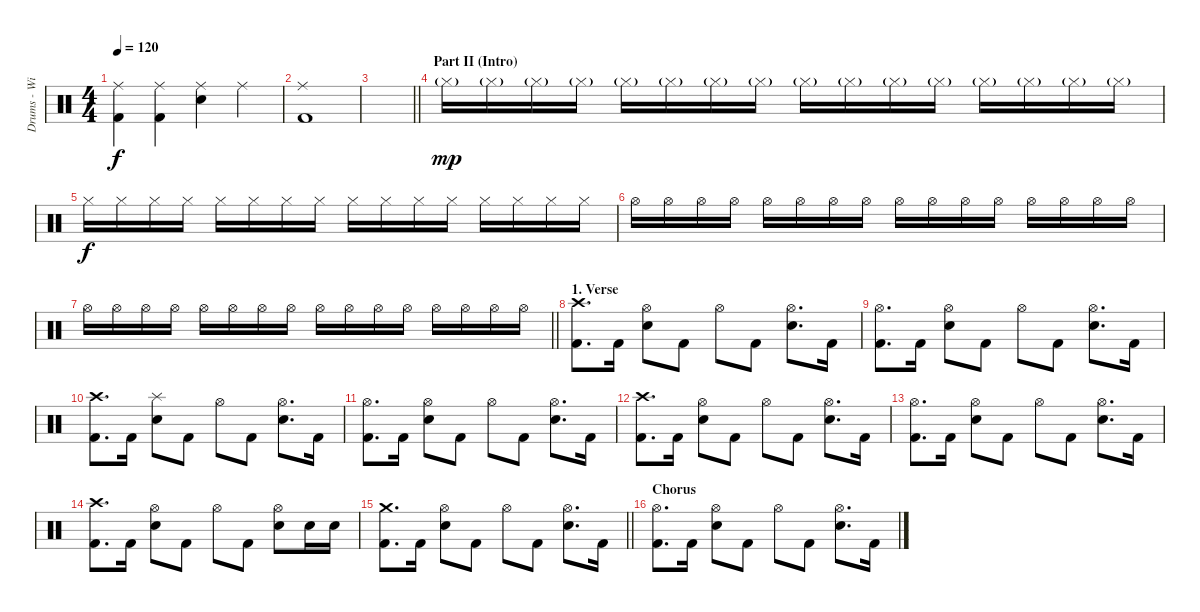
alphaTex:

\track ("Drums - Willi Wurm" "Drums - Wi") {instrument percussion}
\staff {score}
\articulation defaults
\ts (4 4)
\tempo 120
\clef neutral
\ks c
("Ride (middle)" "Kick (hit) 2").4{dy f} ("Ride (middle)" "Kick (hit) 2").4 ("Ride (middle)" "Snare (hit) 2").4 "Ride (middle)".4 |
("Ride (middle)" "Kick (hit) 2").1 |
\barLineRight lightlight
|
\section ("" "Part II (Intro)")
"Hi-Hat (closed)"{g}.16{dy mp} "Hi-Hat (closed)"{g}.16 "Hi-Hat (closed)"{g}.16 "Hi-Hat (closed)"{g}.16 "Hi-Hat (closed)"{g}.16 "Hi-Hat (closed)"{g}.16 "Hi-Hat (closed)"{g}.16 "Hi-Hat (closed)"{g}.16 "Hi-Hat (closed)"{g}.16 "Hi-Hat (closed)"{g}.16 "Hi-Hat (closed)"{g}.16 "Hi-Hat (closed)"{g}.16 "Hi-Hat (closed)"{g}.16 "Hi-Hat (closed)"{g}.16 "Hi-Hat (closed)"{g}.16 "Hi-Hat (closed)"{g}.16 |
"Hi-Hat (closed)".16{dy f} "Hi-Hat (closed)".16 "Hi-Hat (closed)".16 "Hi-Hat (closed)".16 "Hi-Hat (closed)".16 "Hi-Hat (closed)".16 "Hi-Hat (closed)".16 "Hi-Hat (closed)".16 "Hi-Hat (closed)".16 "Hi-Hat (closed)".16 "Hi-Hat (closed)".16 "Hi-Hat (closed)".16 "Hi-Hat (closed)".16 "Hi-Hat (closed)".16 "Hi-Hat (closed)".16 "Hi-Hat (closed)".16 |
"Hi-Hat (open)".16 "Hi-Hat (open)".16 "Hi-Hat (open)".16 "Hi-Hat (open)".16 "Hi-Hat (open)".16 "Hi-Hat (open)".16 "Hi-Hat (open)".16 "Hi-Hat (open)".16 "Hi-Hat (open)".16 "Hi-Hat (open)".16 "Hi-Hat (open)".16 "Hi-Hat (open)".16 "Hi-Hat (open)".16 "Hi-Hat (open)".16 "Hi-Hat (open)".16 "Hi-Hat (open)".16 |
\barLineRight lightlight "Hi-Hat (open)".16 "Hi-Hat (open)".16 "Hi-Hat (open)".16 "Hi-Hat (open)".16 "Hi-Hat (open)".16 "Hi-Hat (open)".16 "Hi-Hat (open)".16 "Hi-Hat (open)".16 "Hi-Hat (open)".16 "Hi-Hat (open)".16 "Hi-Hat (open)".16 "Hi-Hat (open)".16 "Hi-Hat (open)".16 "Hi-Hat (open)".16 "Hi-Hat (open)".16 "Hi-Hat (open)".16
|
\section ("" "1. Verse")
("Crash high (hit)" "Kick (hit) 2").8{d} "Kick (hit) 2".16 ("Hi-Hat (open)" "Snare (hit) 2").8 "Kick (hit) 2".8 "Hi-Hat (open)".8 "Kick (hit) 2".8 ("Hi-Hat (open)" "Snare (hit) 2").8{d} "Kick (hit) 2".16 |
("Hi-Hat (open)" "Kick (hit) 2").8{d} "Kick (hit) 2".16 ("Hi-Hat (open)" "Snare (hit) 2").8 "Kick (hit) 2".8 "Hi-Hat (open)".8 "Kick (hit) 2".8 ("Hi-Hat (open)" "Snare (hit) 2").8{d} "Kick (hit) 2".16 |
("Crash high (hit)" "Kick (hit) 2").8{d} "Kick (hit) 2".16 ("Splash (hit)" "Snare (hit) 2").8 "Kick (hit) 2".8 "Hi-Hat (open)".8 "Kick (hit) 2".8 ("Hi-Hat (open)" "Snare (hit) 2").8{d} "Kick (hit) 2".16 |
("Hi-Hat (open)" "Kick (hit) 2").8{d} "Kick (hit) 2".16 ("Hi-Hat (open)" "Snare (hit) 2").8 "Kick (hit) 2".8 "Hi-Hat (open)".8 "Kick (hit) 2".8 ("Hi-Hat (open)" "Snare (hit) 2").8{d} "Kick (hit) 2".16 |
("Crash high (hit)" "Kick (hit) 2").8{d} "Kick (hit) 2".16 ("Hi-Hat (open)" "Snare (hit) 2").8 "Kick (hit) 2".8 "Hi-Hat (open)".8 "Kick (hit) 2".8 ("Hi-Hat (open)" "Snare (hit) 2").8{d} "Kick (hit) 2".16 |
("Hi-Hat (open)" "Kick (hit) 2").8{d} "Kick (hit) 2".16 ("Hi-Hat (open)" "Snare (hit) 2").8 "Kick (hit) 2".8 "Hi-Hat (open)".8 "Kick (hit) 2".8 ("Hi-Hat (open)" "Snare (hit) 2").8{d} "Kick (hit) 2".16 |
("Crash high (hit)" "Kick (hit) 2").8{d} "Kick (hit) 2".16 ("Hi-Hat (open)" "Snare (hit) 2").8 "Kick (hit) 2".8 "Hi-Hat (open)".8 "Kick (hit) 2".8 ("Hi-Hat (open)" "Snare (hit) 2").8 "Snare (hit) 2".16 "Snare (hit) 2".16 |
\barLineRight lightlight
("Crash medium (hit)" "Kick (hit) 2").8{d} "Kick (hit) 2".16 ("Hi-Hat (open)" "Snare (hit) 2").8 "Kick (hit) 2".8 "Hi-Hat (open)".8 "Kick (hit) 2".8 ("Hi-Hat (open)" "Snare (hit) 2").8{d} "Kick (hit) 2".16 |
\section ("" "Chorus")
("Hi-Hat (open)" "Kick (hit) 2").8{d} "Kick (hit) 2".16 ("Hi-Hat (open)" "Snare (hit) 2").8 "Kick (hit) 2".8 "Hi-Hat (open)".8 "Kick (hit) 2".8 ("Hi-Hat (open)" "Snare (hit) 2").8{d} "Kick (hit) 2".16
